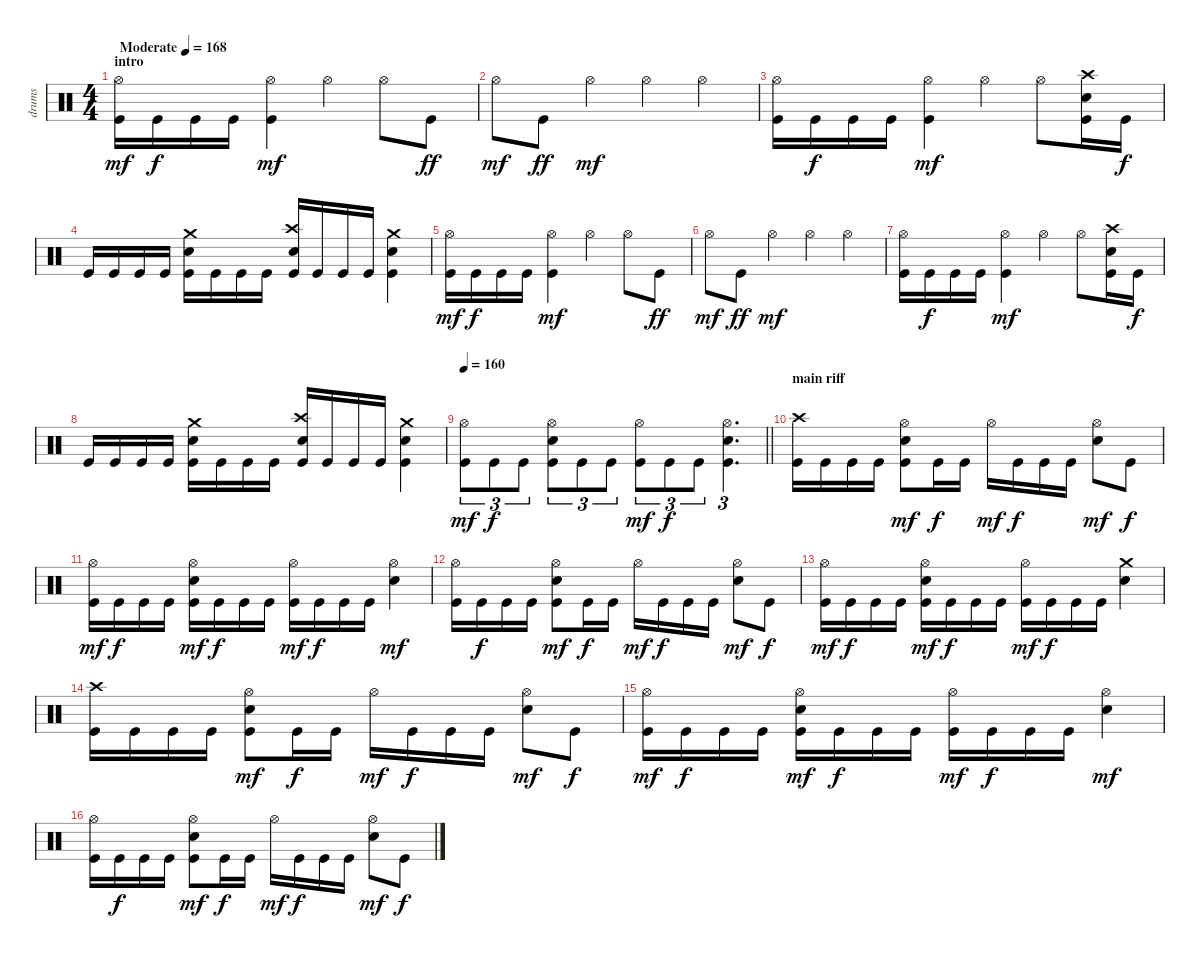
\track ("drums" "drums") {instrument percussion}
\staff {score}
\articulation defaults
\ts (4 4)
\section ("" "intro")
\tempo (168 "Moderate")
\clef neutral
\ks c
("Hi-Hat (open)" "Kick (hit)").16{dy mf} "Kick (hit)".16{dy f} "Kick (hit)".16 "Kick (hit)".16 ("Hi-Hat (open)" "Kick (hit)").4{dy mf} "Hi-Hat (open)".4 "Hi-Hat (open)".8 "Kick (hit)".8{dy ff} |
"Hi-Hat (open)".8{dy mf} "Kick (hit)".8{dy ff} "Hi-Hat (open)".4{dy mf} "Hi-Hat (open)".4 "Hi-Hat (open)".4 |
("Hi-Hat (open)" "Kick (hit)").16 "Kick (hit)".16{dy f} "Kick (hit)".16 "Kick (hit)".16 ("Hi-Hat (open)" "Kick (hit)").4{dy mf} "Hi-Hat (open)".4 "Hi-Hat (open)".8 ("Crash high (hit)" "Electric Snare (hit)" "Kick (hit)").16 "Kick (hit)".16{dy f} |
"Kick (hit)".16 "Kick (hit)".16 "Kick (hit)".16 "Kick (hit)".16 ("Crash medium (hit)" "Electric Snare (hit)" "Kick (hit)").16 "Kick (hit)".16 "Kick (hit)".16 "Kick (hit)".16 ("Crash high (hit)" "Electric Snare (hit)" "Kick (hit)").16 "Kick (hit)".16 "Kick (hit)".16 "Kick (hit)".16 ("Crash medium (hit)" "Electric Snare (hit)" "Kick (hit)").4 |
("Hi-Hat (open)" "Kick (hit)").16{dy mf} "Kick (hit)".16{dy f} "Kick (hit)".16 "Kick (hit)".16 ("Hi-Hat (open)" "Kick (hit)").4{dy mf} "Hi-Hat (open)".4 "Hi-Hat (open)".8 "Kick (hit)".8{dy ff} |
"Hi-Hat (open)".8{dy mf} "Kick (hit)".8{dy ff} "Hi-Hat (open)".4{dy mf} "Hi-Hat (open)".4 "Hi-Hat (open)".4 |
("Hi-Hat (open)" "Kick (hit)").16 "Kick (hit)".16{dy f} "Kick (hit)".16 "Kick (hit)".16 ("Hi-Hat (open)" "Kick (hit)").4{dy mf} "Hi-Hat (open)".4 "Hi-Hat (open)".8 ("Crash high (hit)" "Electric Snare (hit)" "Kick (hit)").16 "Kick (hit)".16{dy f} |
"Kick (hit)".16 "Kick (hit)".16 "Kick (hit)".16 "Kick (hit)".16 ("Crash medium (hit)" "Electric Snare (hit)" "Kick (hit)").16 "Kick (hit)".16 "Kick (hit)".16 "Kick (hit)".16 ("Crash high (hit)" "Electric Snare (hit)" "Kick (hit)").16 "Kick (hit)".16 "Kick (hit)".16 "Kick (hit)".16 ("Crash medium (hit)" "Electric Snare (hit)" "Kick (hit)").4 |
\tempo 160
\barLineRight lightlight
("Hi-Hat (open)" "Kick (hit)").8{tu (3 2) dy mf} "Kick (hit)".8{tu (3 2) dy f} "Kick (hit)".8{tu (3 2)} ("Hi-Hat (open)" "Electric Snare (hit)" "Kick (hit)").8{tu (3 2)} "Kick (hit)".8{tu (3 2)} "Kick (hit)".8{tu (3 2)} ("Hi-Hat (open)" "Kick (hit)").8{tu (3 2) dy mf} "Kick (hit)".8{tu (3 2) dy f} "Kick (hit)".8{tu (3 2)} ("Hi-Hat (open)" "Electric Snare (hit)" "Kick (hit)").4{d tu (3 2)} |
\section ("" "main riff")
("Crash high (hit)" "Kick (hit)").16 "Kick (hit)".16 "Kick (hit)".16 "Kick (hit)".16 ("Hi-Hat (open)" "Electric Snare (hit)" "Kick (hit)").8{dy mf} "Kick (hit)".16{dy f} "Kick (hit)".16 "Hi-Hat (open)".16{dy mf} "Kick (hit)".16{dy f} "Kick (hit)".16 "Kick (hit)".16 ("Hi-Hat (open)" "Electric Snare (hit)").8{dy mf} "Kick (hit)".8{dy f} |
("Hi-Hat (open)" "Kick (hit)").16{dy mf} "Kick (hit)".16{dy f} "Kick (hit)".16 "Kick (hit)".16 ("Hi-Hat (open)" "Electric Snare (hit)" "Kick (hit)").16{dy mf} "Kick (hit)".16{dy f} "Kick (hit)".16 "Kick (hit)".16 ("Hi-Hat (open)" "Kick (hit)").16{dy mf} "Kick (hit)".16{dy f} "Kick (hit)".16 "Kick (hit)".16 ("Hi-Hat (open)" "Electric Snare (hit)").4{dy mf} |
("Hi-Hat (open)" "Kick (hit)").16 "Kick (hit)".16{dy f} "Kick (hit)".16 "Kick (hit)".16 ("Hi-Hat (open)" "Electric Snare (hit)" "Kick (hit)").8{dy mf} "Kick (hit)".16{dy f} "Kick (hit)".16 "Hi-Hat (open)".16{dy mf} "Kick (hit)".16{dy f} "Kick (hit)".16 "Kick (hit)".16 ("Hi-Hat (open)" "Electric Snare (hit)").8{dy mf} "Kick (hit)".8{dy f} |
("Hi-Hat (open)" "Kick (hit)").16{dy mf} "Kick (hit)".16{dy f} "Kick (hit)".16 "Kick (hit)".16 ("Hi-Hat (open)" "Electric Snare (hit)" "Kick (hit)").16{dy mf} "Kick (hit)".16{dy f} "Kick (hit)".16 "Kick (hit)".16 ("Hi-Hat (open)" "Kick (hit)").16{dy mf} "Kick (hit)".16{dy f} "Kick (hit)".16 "Kick (hit)".16 ("Crash medium (hit)" "Electric Snare (hit)").4 |
("Crash high (hit)" "Kick (hit)").16 "Kick (hit)".16 "Kick (hit)".16 "Kick (hit)".16 ("Hi-Hat (open)" "Electric Snare (hit)" "Kick (hit)").8{dy mf} "Kick (hit)".16{dy f} "Kick (hit)".16 "Hi-Hat (open)".16{dy mf} "Kick (hit)".16{dy f} "Kick (hit)".16 "Kick (hit)".16 ("Hi-Hat (open)" "Electric Snare (hit)").8{dy mf} "Kick (hit)".8{dy f} |
("Hi-Hat (open)" "Kick (hit)").16{dy mf} "Kick (hit)".16{dy f} "Kick (hit)".16 "Kick (hit)".16 ("Hi-Hat (open)" "Electric Snare (hit)" "Kick (hit)").16{dy mf} "Kick (hit)".16{dy f} "Kick (hit)".16 "Kick (hit)".16 ("Hi-Hat (open)" "Kick (hit)").16{dy mf} "Kick (hit)".16{dy f} "Kick (hit)".16 "Kick (hit)".16 ("Hi-Hat (open)" "Electric Snare (hit)").4{dy mf} |
("Hi-Hat (open)" "Kick (hit)").16 "Kick (hit)".16{dy f} "Kick (hit)".16 "Kick (hit)".16 ("Hi-Hat (open)" "Electric Snare (hit)" "Kick (hit)").8{dy mf} "Kick (hit)".16{dy f} "Kick (hit)".16 "Hi-Hat (open)".16{dy mf} "Kick (hit)".16{dy f} "Kick (hit)".16 "Kick (hit)".16 ("Hi-Hat (open)" "Electric Snare (hit)").8{dy mf} "Kick (hit)".8{dy f}
